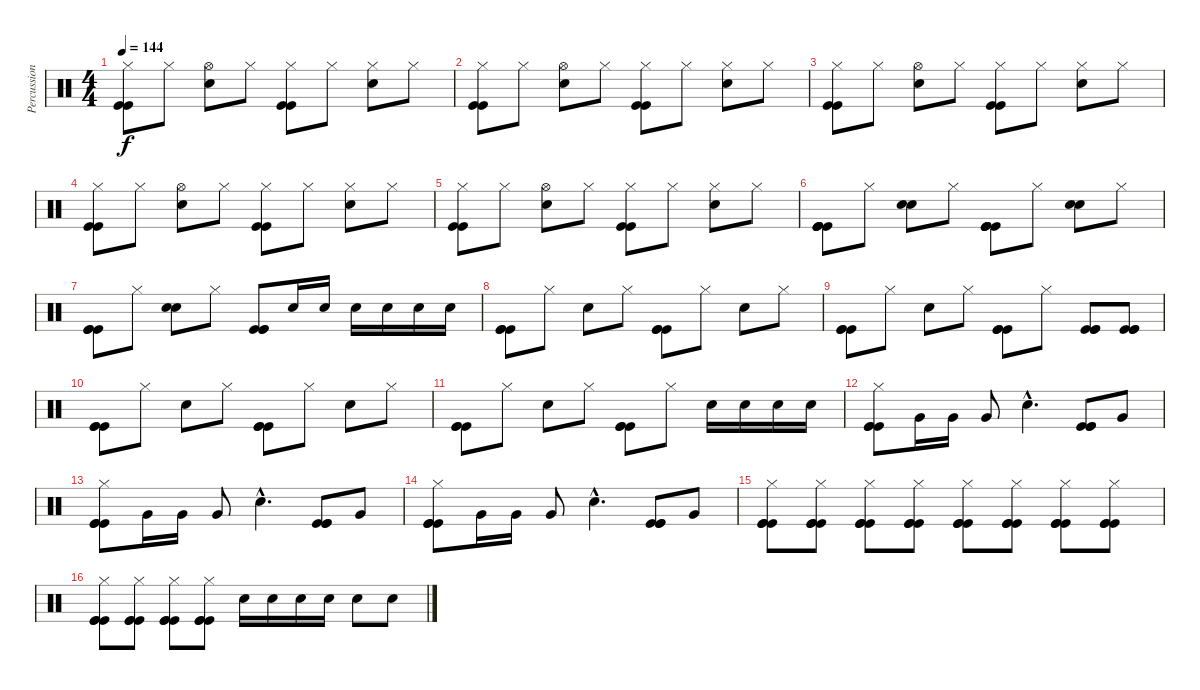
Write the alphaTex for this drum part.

\track ("Percussion" "Percussion") {instrument percussion}
\staff {score}
\articulation defaults
\ts (4 4)
\tempo 144
\clef neutral
\ks c
("Hi-Hat (closed)" "Kick (hit)" "Kick (hit)").8{dy f} "Hi-Hat (closed)".8 ("Hi-Hat (open)" "Snare (hit) 2").8 "Hi-Hat (closed)".8 ("Hi-Hat (closed)" "Kick (hit)" "Kick (hit)").8 "Hi-Hat (closed)".8 ("Hi-Hat (closed)" "Snare (hit) 2").8 "Hi-Hat (closed)".8 |
("Hi-Hat (closed)" "Kick (hit)" "Kick (hit)").8 "Hi-Hat (closed)".8 ("Hi-Hat (open)" "Snare (hit) 2").8 "Hi-Hat (closed)".8 ("Hi-Hat (closed)" "Kick (hit)" "Kick (hit)").8 "Hi-Hat (closed)".8 ("Hi-Hat (closed)" "Snare (hit) 2").8 "Hi-Hat (closed)".8 |
("Hi-Hat (closed)" "Kick (hit)" "Kick (hit)").8 "Hi-Hat (closed)".8 ("Hi-Hat (open)" "Snare (hit) 2").8 "Hi-Hat (closed)".8 ("Hi-Hat (closed)" "Kick (hit)" "Kick (hit)").8 "Hi-Hat (closed)".8 ("Hi-Hat (closed)" "Snare (hit) 2").8 "Hi-Hat (closed)".8 |
("Hi-Hat (closed)" "Kick (hit)" "Kick (hit)").8 "Hi-Hat (closed)".8 ("Hi-Hat (open)" "Snare (hit) 2").8 "Hi-Hat (closed)".8 ("Hi-Hat (closed)" "Kick (hit)" "Kick (hit)").8 "Hi-Hat (closed)".8 ("Hi-Hat (closed)" "Snare (hit) 2").8 "Hi-Hat (closed)".8 |
("Hi-Hat (closed)" "Kick (hit)" "Kick (hit)").8 "Hi-Hat (closed)".8 ("Hi-Hat (open)" "Snare (hit) 2").8 "Hi-Hat (closed)".8 ("Hi-Hat (closed)" "Kick (hit)" "Kick (hit)").8 "Hi-Hat (closed)".8 ("Hi-Hat (closed)" "Snare (hit) 2").8 "Hi-Hat (closed)".8 |
("Kick (hit)" "Kick (hit)" "Kick (hit)" "Kick (hit)").8 "Hi-Hat (closed)".8 ("Snare (hit) 2" "Snare (hit) 2").8 "Hi-Hat (closed)".8 ("Kick (hit)" "Kick (hit)" "Kick (hit)" "Kick (hit)").8 "Hi-Hat (closed)".8 ("Snare (hit) 2" "Snare (hit) 2").8 "Hi-Hat (closed)".8 |
("Kick (hit)" "Kick (hit)" "Kick (hit)").8 "Hi-Hat (closed)".8 ("Snare (hit) 2" "Snare (hit) 2").8 "Hi-Hat (closed)".8 ("Kick (hit)" "Kick (hit)" "Kick (hit)").8 "Snare (hit) 2".16 "Snare (hit) 2".16 "Snare (hit) 2".16 "Snare (hit) 2".16 "Snare (hit) 2".16 "Snare (hit) 2".16 |
("Kick (hit)" "Kick (hit)" "Kick (hit)").8 "Hi-Hat (closed)".8 "Snare (hit) 2".8 "Hi-Hat (closed)".8 ("Kick (hit)" "Kick (hit)" "Kick (hit)").8 "Hi-Hat (closed)".8 "Snare (hit) 2".8 "Hi-Hat (closed)".8 |
("Kick (hit)" "Kick (hit)" "Kick (hit)").8 "Hi-Hat (closed)".8 "Snare (hit) 2".8 "Hi-Hat (closed)".8 ("Kick (hit)" "Kick (hit)" "Kick (hit)").8 "Hi-Hat (closed)".8 ("Kick (hit)" "Kick (hit)" "Kick (hit)").8 ("Kick (hit)" "Kick (hit)" "Kick (hit)").8 |
("Kick (hit)" "Kick (hit)" "Kick (hit)").8 "Hi-Hat (closed)".8 "Snare (hit) 2".8 "Hi-Hat (closed)".8 ("Kick (hit)" "Kick (hit)" "Kick (hit)").8 "Hi-Hat (closed)".8 "Snare (hit) 2".8 "Hi-Hat (closed)".8 |
("Kick (hit)" "Kick (hit)" "Kick (hit)").8 "Hi-Hat (closed)".8 "Snare (hit) 2".8 "Hi-Hat (closed)".8 ("Kick (hit)" "Kick (hit)" "Kick (hit)").8 "Hi-Hat (closed)".8 "Snare (hit) 2".16 "Snare (hit) 2".16 "Snare (hit) 2".16 "Snare (hit) 2".16 |
("Kick (hit)" "Kick (hit)" "Kick (hit)" "Hi-Hat (closed)").8 "Very Low Tom (hit)".16 "Very Low Tom (hit)".16 "Very Low Tom (hit)".8 "Snare (hit) 2"{hac}.4{d} ("Kick (hit)" "Kick (hit)" "Kick (hit)").8 "Very Low Tom (hit)".8 |
("Kick (hit)" "Kick (hit)" "Kick (hit)" "Hi-Hat (closed)").8 "Very Low Tom (hit)".16 "Very Low Tom (hit)".16 "Very Low Tom (hit)".8 "Snare (hit) 2"{hac}.4{d} ("Kick (hit)" "Kick (hit)" "Kick (hit)").8 "Very Low Tom (hit)".8 |
("Kick (hit)" "Kick (hit)" "Kick (hit)" "Hi-Hat (closed)").8 "Very Low Tom (hit)".16 "Very Low Tom (hit)".16 "Very Low Tom (hit)".8 "Snare (hit) 2"{hac}.4{d} ("Kick (hit)" "Kick (hit)" "Kick (hit)").8 "Very Low Tom (hit)".8 |
("Hi-Hat (closed)" "Kick (hit)" "Kick (hit)" "Kick (hit)").8 ("Hi-Hat (closed)" "Kick (hit)" "Kick (hit)" "Kick (hit)").8 ("Hi-Hat (closed)" "Kick (hit)" "Kick (hit)" "Kick (hit)").8 ("Hi-Hat (closed)" "Kick (hit)" "Kick (hit)" "Kick (hit)").8 ("Hi-Hat (closed)" "Kick (hit)" "Kick (hit)" "Kick (hit)").8 ("Hi-Hat (closed)" "Kick (hit)" "Kick (hit)" "Kick (hit)").8 ("Hi-Hat (closed)" "Kick (hit)" "Kick (hit)" "Kick (hit)").8 ("Hi-Hat (closed)" "Kick (hit)" "Kick (hit)" "Kick (hit)").8 |
("Hi-Hat (closed)" "Kick (hit)" "Kick (hit)" "Kick (hit)").8 ("Hi-Hat (closed)" "Kick (hit)" "Kick (hit)" "Kick (hit)").8 ("Hi-Hat (closed)" "Kick (hit)" "Kick (hit)" "Kick (hit)").8 ("Hi-Hat (closed)" "Kick (hit)" "Kick (hit)" "Kick (hit)").8 "Snare (hit) 2".16 "Snare (hit) 2".16 "Snare (hit) 2".16 "Snare (hit) 2".16 "Snare (hit) 2".8 "Snare (hit) 2".8
